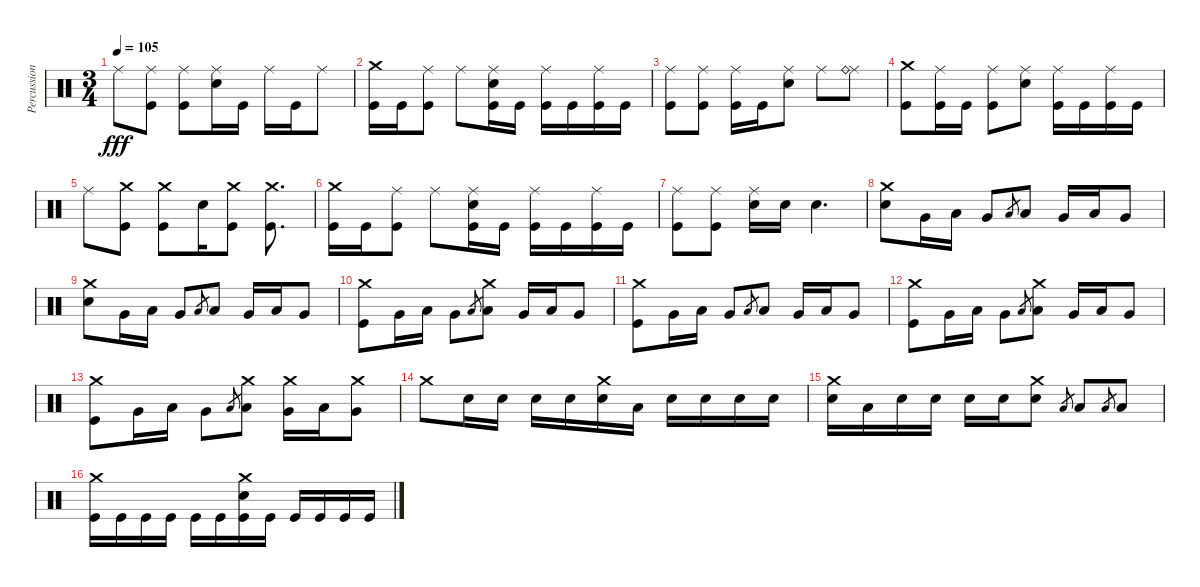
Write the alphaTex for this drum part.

\track ("Percussions" "Percussion") {instrument percussion}
\staff {score}
\articulation defaults
\ts (3 4)
\tempo 105
\clef neutral
\ks c "Ride (middle)".8{dy fff}
("Ride (middle)" "Kick (hit)").8 ("Ride (middle)" "Kick (hit)").8 ("Ride (middle)" "Snare (hit) 2").16 "Kick (hit)".16 "Ride (middle)".16 "Kick (hit)".16 "Ride (middle)".8 |
("Crash medium (hit)" "Kick (hit)").16 "Kick (hit)".16 ("Ride (middle)" "Kick (hit)").8 "Ride (middle)".8 ("Ride (middle)" "Snare (hit) 2" "Kick (hit)").16 "Kick (hit)".16 ("Ride (middle)" "Kick (hit)").16 "Kick (hit)".16 ("Ride (middle)" "Kick (hit)").16 "Kick (hit)".16 |
("Ride (middle)" "Kick (hit)").8 ("Ride (middle)" "Kick (hit)").8 ("Ride (middle)" "Kick (hit)").16 "Kick (hit)".16 ("Ride (middle)" "Snare (hit) 2").8 "Ride (middle)".8 ("Ride (middle)" "Ride (bell)").8 |
("Crash medium (hit)" "Kick (hit)").8 ("Ride (middle)" "Kick (hit)").16 "Kick (hit)".16 ("Ride (middle)" "Kick (hit)").8 ("Ride (middle)" "Snare (hit) 2").8 ("Ride (middle)" "Kick (hit)").16 "Kick (hit)".16 ("Ride (middle)" "Kick (hit)").16 "Kick (hit)".16 |
"Ride (middle)".8 ("Crash medium (hit)" "Kick (hit)").8 ("Crash medium (hit)" "Kick (hit)").8 "Snare (hit) 2".16 ("Crash medium (hit)" "Kick (hit)").8 ("Crash medium (hit)" "Kick (hit)").8{d} |
("Crash medium (hit)" "Kick (hit)").16 "Kick (hit)".16 ("Ride (middle)" "Kick (hit)").8 "Ride (middle)".8 ("Ride (middle)" "Snare (hit) 2" "Kick (hit)").16 "Kick (hit)".16 ("Ride (middle)" "Kick (hit)").16 "Kick (hit)".16 ("Ride (middle)" "Kick (hit)").16 "Kick (hit)".16 |
("Ride (middle)" "Kick (hit)").8 ("Ride (middle)" "Kick (hit)").8 ("Ride (middle)" "Snare (hit) 2").16 "Snare (hit) 2".16 "Snare (hit) 2".4{d} |
("Crash medium (hit)" "Snare (hit) 2").8 "Very Low Tom (hit)".16 "Low Tom (hit)".16 "Very Low Tom (hit)".8 "Low Tom (hit)".8{gr} "Low Tom (hit)".8 "Very Low Tom (hit)".16 "Low Tom (hit)".16 "Very Low Tom (hit)".8 |
("Crash medium (hit)" "Snare (hit) 2").8 "Very Low Tom (hit)".16 "Low Tom (hit)".16 "Very Low Tom (hit)".8 "Low Tom (hit)".8{gr} "Low Tom (hit)".8 "Very Low Tom (hit)".16 "Low Tom (hit)".16 "Very Low Tom (hit)".8 |
("Crash medium (hit)" "Kick (hit)").8 "Very Low Tom (hit)".16 "Low Tom (hit)".16 "Very Low Tom (hit)".8 "Low Tom (hit)".8{gr} ("Crash medium (hit)" "Low Tom (hit)").8 "Very Low Tom (hit)".16 "Low Tom (hit)".16 "Very Low Tom (hit)".8 |
("Crash medium (hit)" "Kick (hit)").8 "Very Low Tom (hit)".16 "Low Tom (hit)".16 "Very Low Tom (hit)".8 "Low Tom (hit)".8{gr} "Low Tom (hit)".8 "Very Low Tom (hit)".16 "Low Tom (hit)".16 "Very Low Tom (hit)".8 |
("Crash medium (hit)" "Kick (hit)").8 "Very Low Tom (hit)".16 "Low Tom (hit)".16 "Very Low Tom (hit)".8 "Low Tom (hit)".8{gr} ("Crash medium (hit)" "Low Tom (hit)").8 "Very Low Tom (hit)".16 "Low Tom (hit)".16 "Very Low Tom (hit)".8 |
("Crash medium (hit)" "Kick (hit)").8 "Very Low Tom (hit)".16 "Low Tom (hit)".16 "Very Low Tom (hit)".8 "Low Tom (hit)".8{gr} ("Crash medium (hit)" "Low Tom (hit)").8 ("Crash medium (hit)" "Very Low Tom (hit)").16 "Low Tom (hit)".16 ("Crash medium (hit)" "Very Low Tom (hit)").8 |
"Crash medium (hit)".8 "Snare (hit) 2".16 "Snare (hit) 2".16 "Snare (hit) 2".16 "Snare (hit) 2".16 ("Crash medium (hit)" "Snare (hit) 2").16 "Low Floor Tom (hit)".16 "Snare (hit) 2".16 "Snare (hit) 2".16 "Snare (hit) 2".16 "Snare (hit) 2".16 |
("Crash medium (hit)" "Snare (hit) 2").16 "Low Floor Tom (hit)".16 "Snare (hit) 2".16 "Snare (hit) 2".16 "Snare (hit) 2".16 "Snare (hit) 2".16 ("Crash medium (hit)" "Snare (hit) 2").8 "Low Floor Tom (hit)".8{gr} "Low Floor Tom (hit)".8 "Low Floor Tom (hit)".8{gr} "Low Floor Tom (hit)".8 |
("Crash medium (hit)" "Kick (hit)").16 "Kick (hit)".16 "Kick (hit)".16 "Kick (hit)".16 "Kick (hit)".16 "Kick (hit)".16 ("Crash medium (hit)" "Snare (hit) 2" "Kick (hit)").16 "Kick (hit)".16 "Kick (hit)".16 "Kick (hit)".16 "Kick (hit)".16 "Kick (hit)".16
